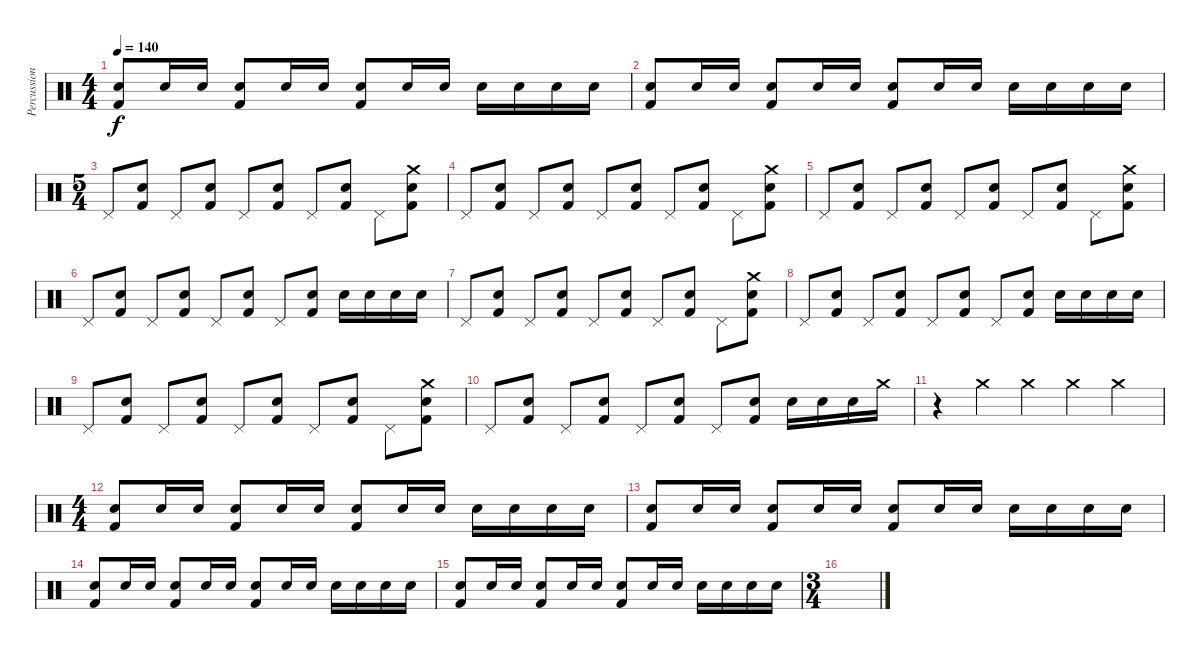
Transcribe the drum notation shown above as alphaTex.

\track ("Percussion" "Percussion") {instrument percussion}
\staff {score}
\articulation defaults
\ts (4 4)
\tempo 140
\clef neutral
\ks c
("Electric Snare (hit)" "Kick (hit) 2").8{dy f} "Electric Snare (hit)".16 "Electric Snare (hit)".16 ("Electric Snare (hit)" "Kick (hit) 2").8 "Electric Snare (hit)".16 "Electric Snare (hit)".16 ("Electric Snare (hit)" "Kick (hit) 2").8 "Electric Snare (hit)".16 "Electric Snare (hit)".16 "Electric Snare (hit)".16 "Electric Snare (hit)".16 "Electric Snare (hit)".16 "Electric Snare (hit)".16 |
("Electric Snare (hit)" "Kick (hit) 2").8 "Electric Snare (hit)".16 "Electric Snare (hit)".16 ("Electric Snare (hit)" "Kick (hit) 2").8 "Electric Snare (hit)".16 "Electric Snare (hit)".16 ("Electric Snare (hit)" "Kick (hit) 2").8 "Electric Snare (hit)".16 "Electric Snare (hit)".16 "Electric Snare (hit)".16 "Electric Snare (hit)".16 "Electric Snare (hit)".16 "Electric Snare (hit)".16 |
\ts (5 4)
"Pedal Hi-Hat (hit)".8 ("Electric Snare (hit)" "Kick (hit) 2").8 "Pedal Hi-Hat (hit)".8 ("Electric Snare (hit)" "Kick (hit) 2").8 "Pedal Hi-Hat (hit)".8 ("Electric Snare (hit)" "Kick (hit) 2").8 "Pedal Hi-Hat (hit)".8 ("Electric Snare (hit)" "Kick (hit) 2").8 "Pedal Hi-Hat (hit)".8 ("Crash medium (hit)" "Electric Snare (hit)" "Kick (hit) 2").8 |
"Pedal Hi-Hat (hit)".8 ("Electric Snare (hit)" "Kick (hit) 2").8 "Pedal Hi-Hat (hit)".8 ("Electric Snare (hit)" "Kick (hit) 2").8 "Pedal Hi-Hat (hit)".8 ("Electric Snare (hit)" "Kick (hit) 2").8 "Pedal Hi-Hat (hit)".8 ("Electric Snare (hit)" "Kick (hit) 2").8 "Pedal Hi-Hat (hit)".8 ("Crash medium (hit)" "Electric Snare (hit)" "Kick (hit) 2").8 |
"Pedal Hi-Hat (hit)".8 ("Electric Snare (hit)" "Kick (hit) 2").8 "Pedal Hi-Hat (hit)".8 ("Electric Snare (hit)" "Kick (hit) 2").8 "Pedal Hi-Hat (hit)".8 ("Electric Snare (hit)" "Kick (hit) 2").8 "Pedal Hi-Hat (hit)".8 ("Electric Snare (hit)" "Kick (hit) 2").8 "Pedal Hi-Hat (hit)".8 ("Crash medium (hit)" "Electric Snare (hit)" "Kick (hit) 2").8 |
"Pedal Hi-Hat (hit)".8 ("Electric Snare (hit)" "Kick (hit) 2").8 "Pedal Hi-Hat (hit)".8 ("Electric Snare (hit)" "Kick (hit) 2").8 "Pedal Hi-Hat (hit)".8 ("Electric Snare (hit)" "Kick (hit) 2").8 "Pedal Hi-Hat (hit)".8 ("Electric Snare (hit)" "Kick (hit) 2").8 "Electric Snare (hit)".16 "Electric Snare (hit)".16 "Electric Snare (hit)".16 "Electric Snare (hit)".16 |
"Pedal Hi-Hat (hit)".8 ("Electric Snare (hit)" "Kick (hit) 2").8 "Pedal Hi-Hat (hit)".8 ("Electric Snare (hit)" "Kick (hit) 2").8 "Pedal Hi-Hat (hit)".8 ("Electric Snare (hit)" "Kick (hit) 2").8 "Pedal Hi-Hat (hit)".8 ("Electric Snare (hit)" "Kick (hit) 2").8 "Pedal Hi-Hat (hit)".8 ("Crash medium (hit)" "Electric Snare (hit)" "Kick (hit) 2").8 |
"Pedal Hi-Hat (hit)".8 ("Electric Snare (hit)" "Kick (hit) 2").8 "Pedal Hi-Hat (hit)".8 ("Electric Snare (hit)" "Kick (hit) 2").8 "Pedal Hi-Hat (hit)".8 ("Electric Snare (hit)" "Kick (hit) 2").8 "Pedal Hi-Hat (hit)".8 ("Electric Snare (hit)" "Kick (hit) 2").8 "Electric Snare (hit)".16 "Electric Snare (hit)".16 "Electric Snare (hit)".16 "Electric Snare (hit)".16 |
"Pedal Hi-Hat (hit)".8 ("Electric Snare (hit)" "Kick (hit) 2").8 "Pedal Hi-Hat (hit)".8 ("Electric Snare (hit)" "Kick (hit) 2").8 "Pedal Hi-Hat (hit)".8 ("Electric Snare (hit)" "Kick (hit) 2").8 "Pedal Hi-Hat (hit)".8 ("Electric Snare (hit)" "Kick (hit) 2").8 "Pedal Hi-Hat (hit)".8 ("Crash medium (hit)" "Electric Snare (hit)" "Kick (hit) 2").8 |
"Pedal Hi-Hat (hit)".8 ("Electric Snare (hit)" "Kick (hit) 2").8 "Pedal Hi-Hat (hit)".8 ("Electric Snare (hit)" "Kick (hit) 2").8 "Pedal Hi-Hat (hit)".8 ("Electric Snare (hit)" "Kick (hit) 2").8 "Pedal Hi-Hat (hit)".8 ("Electric Snare (hit)" "Kick (hit) 2").8 "Electric Snare (hit)".16 "Electric Snare (hit)".16 "Electric Snare (hit)".16 "Crash medium (hit)".16 |
r.4 "Crash medium (hit)".4 "Crash medium (hit)".4 "Crash medium (hit)".4 "Crash medium (hit)".4 |
\ts (4 4)
("Electric Snare (hit)" "Kick (hit) 2").8 "Electric Snare (hit)".16 "Electric Snare (hit)".16 ("Electric Snare (hit)" "Kick (hit) 2").8 "Electric Snare (hit)".16 "Electric Snare (hit)".16 ("Electric Snare (hit)" "Kick (hit) 2").8 "Electric Snare (hit)".16 "Electric Snare (hit)".16 "Electric Snare (hit)".16 "Electric Snare (hit)".16 "Electric Snare (hit)".16 "Electric Snare (hit)".16 |
("Electric Snare (hit)" "Kick (hit) 2").8 "Electric Snare (hit)".16 "Electric Snare (hit)".16 ("Electric Snare (hit)" "Kick (hit) 2").8 "Electric Snare (hit)".16 "Electric Snare (hit)".16 ("Electric Snare (hit)" "Kick (hit) 2").8 "Electric Snare (hit)".16 "Electric Snare (hit)".16 "Electric Snare (hit)".16 "Electric Snare (hit)".16 "Electric Snare (hit)".16 "Electric Snare (hit)".16 |
("Electric Snare (hit)" "Kick (hit) 2").8 "Electric Snare (hit)".16 "Electric Snare (hit)".16 ("Electric Snare (hit)" "Kick (hit) 2").8 "Electric Snare (hit)".16 "Electric Snare (hit)".16 ("Electric Snare (hit)" "Kick (hit) 2").8 "Electric Snare (hit)".16 "Electric Snare (hit)".16 "Electric Snare (hit)".16 "Electric Snare (hit)".16 "Electric Snare (hit)".16 "Electric Snare (hit)".16 |
("Electric Snare (hit)" "Kick (hit) 2").8 "Electric Snare (hit)".16 "Electric Snare (hit)".16 ("Electric Snare (hit)" "Kick (hit) 2").8 "Electric Snare (hit)".16 "Electric Snare (hit)".16 ("Electric Snare (hit)" "Kick (hit) 2").8 "Electric Snare (hit)".16 "Electric Snare (hit)".16 "Electric Snare (hit)".16 "Electric Snare (hit)".16 "Electric Snare (hit)".16 "Electric Snare (hit)".16 |
\ts (3 4)
